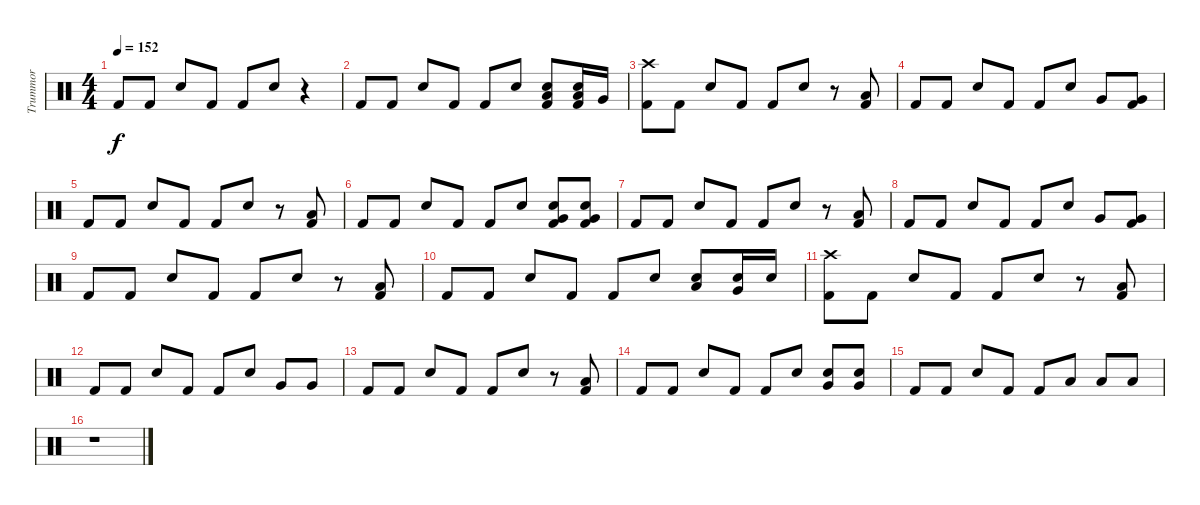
\track ("Trummor" "Trummor") {instrument percussion}
\staff {score}
\articulation defaults
\ts (4 4)
\tempo 152
\clef neutral
\ks c "Kick (hit) 2".8{dy f} "Kick (hit) 2".8 "Electric Snare (hit)".8 "Kick (hit) 2".8 "Kick (hit) 2".8 "Electric Snare (hit)".8
r.4 |
"Kick (hit) 2".8 "Kick (hit) 2".8 "Electric Snare (hit)".8 "Kick (hit) 2".8 "Kick (hit) 2".8 "Electric Snare (hit)".8 ("Snare (hit)" "Kick (hit) 2" "Low Tom (hit)").8 ("Snare (hit)" "Kick (hit) 2" "Low Tom (hit)").16 "Very Low Tom (hit)".16 |
("Kick (hit) 2" "Crash high (hit)").8 "Kick (hit) 2".8 "Electric Snare (hit)".8 "Kick (hit) 2".8 "Kick (hit) 2".8 "Electric Snare (hit)".8 r.8 ("Kick (hit) 2" "Low Tom (hit)").8 |
"Kick (hit) 2".8 "Kick (hit) 2".8 "Electric Snare (hit)".8 "Kick (hit) 2".8 "Kick (hit) 2".8 "Electric Snare (hit)".8 "Very Low Tom (hit)".8 ("Kick (hit) 2" "Very Low Tom (hit)").8 |
"Kick (hit) 2".8 "Kick (hit) 2".8 "Electric Snare (hit)".8 "Kick (hit) 2".8 "Kick (hit) 2".8 "Electric Snare (hit)".8 r.8 ("Kick (hit) 2" "Low Tom (hit)").8 |
"Kick (hit) 2".8 "Kick (hit) 2".8 "Electric Snare (hit)".8 "Kick (hit) 2".8 "Kick (hit) 2".8 "Electric Snare (hit)".8 ("Snare (hit)" "Kick (hit) 2" "Very Low Tom (hit)").8 ("Snare (hit)" "Kick (hit) 2" "Very Low Tom (hit)").8 |
"Kick (hit) 2".8 "Kick (hit) 2".8 "Electric Snare (hit)".8 "Kick (hit) 2".8 "Kick (hit) 2".8 "Electric Snare (hit)".8 r.8 ("Kick (hit) 2" "Low Tom (hit)").8 |
"Kick (hit) 2".8 "Kick (hit) 2".8 "Electric Snare (hit)".8 "Kick (hit) 2".8 "Kick (hit) 2".8 "Electric Snare (hit)".8 "Very Low Tom (hit)".8 ("Kick (hit) 2" "Very Low Tom (hit)").8 |
"Kick (hit) 2".8 "Kick (hit) 2".8 "Electric Snare (hit)".8 "Kick (hit) 2".8 "Kick (hit) 2".8 "Electric Snare (hit)".8 r.8 ("Kick (hit) 2" "Low Tom (hit)").8 |
"Kick (hit) 2".8 "Kick (hit) 2".8 "Electric Snare (hit)".8 "Kick (hit) 2".8 "Kick (hit) 2".8 "Electric Snare (hit)".8 ("Snare (hit)" "Low Tom (hit)").8 ("Snare (hit)" "Very Low Tom (hit)").16 "Electric Snare (hit)".16 |
("Kick (hit) 2" "Crash high (hit)").8 "Kick (hit) 2".8 "Electric Snare (hit)".8 "Kick (hit) 2".8 "Kick (hit) 2".8 "Electric Snare (hit)".8 r.8 ("Kick (hit) 2" "Low Tom (hit)").8 |
"Kick (hit) 2".8 "Kick (hit) 2".8 "Electric Snare (hit)".8 "Kick (hit) 2".8 "Kick (hit) 2".8 "Electric Snare (hit)".8 "Very Low Tom (hit)".8 "Very Low Tom (hit)".8 |
"Kick (hit) 2".8 "Kick (hit) 2".8 "Electric Snare (hit)".8 "Kick (hit) 2".8 "Kick (hit) 2".8 "Electric Snare (hit)".8 r.8 ("Kick (hit) 2" "Low Tom (hit)").8 |
"Kick (hit) 2".8 "Kick (hit) 2".8 "Electric Snare (hit)".8 "Kick (hit) 2".8 "Kick (hit) 2".8 "Electric Snare (hit)".8 ("Snare (hit)" "Very Low Tom (hit)").8 ("Snare (hit)" "Very Low Tom (hit)").8 |
"Kick (hit) 2".8 "Kick (hit) 2".8 "Electric Snare (hit)".8 "Kick (hit) 2".8 "Kick (hit) 2".8 "Low Tom (hit)".8 "Low Tom (hit)".8 "Low Tom (hit)".8 |
r.1
